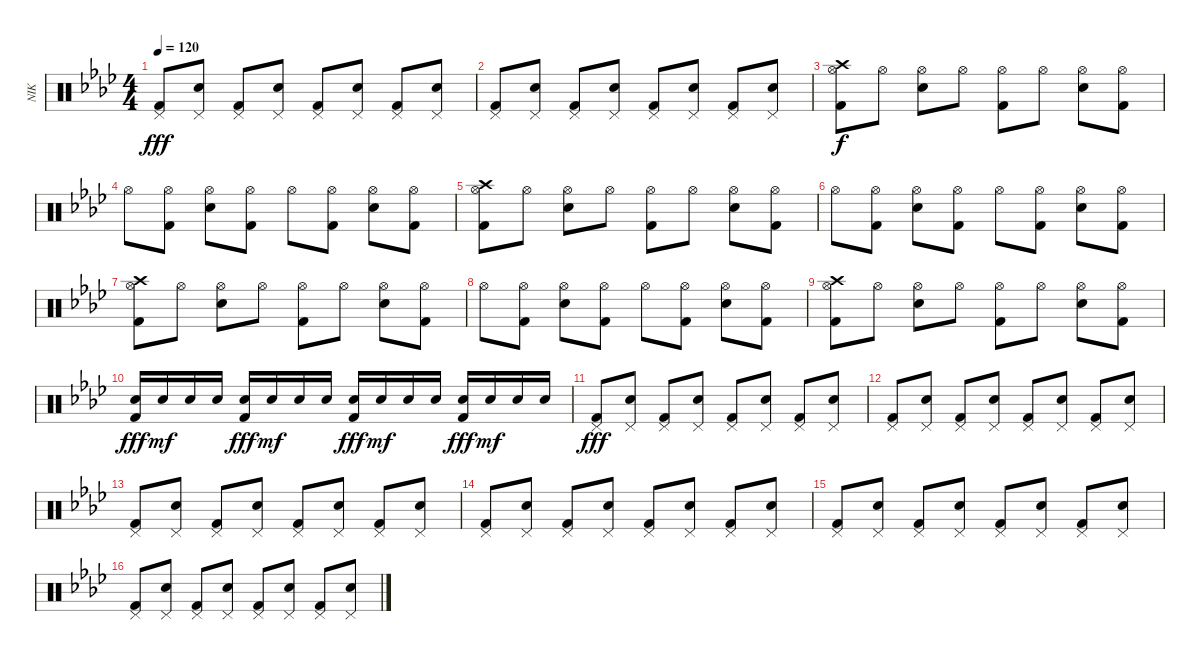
\track ("NIK" "NIK") {instrument percussion}
\staff {score}
\articulation defaults
\ts (4 4)
\tempo 120
\clef neutral
\ks ab
("Pedal Hi-Hat (hit)" "Kick (hit) 2").8{dy fff} ("Pedal Hi-Hat (hit)" "Electric Snare (hit)").8 ("Pedal Hi-Hat (hit)" "Kick (hit) 2").8 ("Pedal Hi-Hat (hit)" "Electric Snare (hit)").8 ("Pedal Hi-Hat (hit)" "Kick (hit) 2").8 ("Pedal Hi-Hat (hit)" "Electric Snare (hit)").8 ("Pedal Hi-Hat (hit)" "Kick (hit) 2").8 ("Pedal Hi-Hat (hit)" "Electric Snare (hit)").8 |
("Pedal Hi-Hat (hit)" "Kick (hit) 2").8 ("Pedal Hi-Hat (hit)" "Electric Snare (hit)").8 ("Pedal Hi-Hat (hit)" "Kick (hit) 2").8 ("Pedal Hi-Hat (hit)" "Electric Snare (hit)").8 ("Pedal Hi-Hat (hit)" "Kick (hit) 2").8 ("Pedal Hi-Hat (hit)" "Electric Snare (hit)").8 ("Pedal Hi-Hat (hit)" "Kick (hit) 2").8 ("Pedal Hi-Hat (hit)" "Electric Snare (hit)").8 |
("Crash high (hit)" "Hi-Hat (open)" "Kick (hit) 2").8{dy f} "Hi-Hat (open)".8 ("Hi-Hat (open)" "Electric Snare (hit)").8 "Hi-Hat (open)".8 ("Hi-Hat (open)" "Kick (hit) 2").8 "Hi-Hat (open)".8 ("Hi-Hat (open)" "Electric Snare (hit)").8 ("Hi-Hat (open)" "Kick (hit) 2").8 |
"Hi-Hat (open)".8 ("Hi-Hat (open)" "Kick (hit) 2").8 ("Hi-Hat (open)" "Electric Snare (hit)").8 ("Hi-Hat (open)" "Kick (hit) 2").8 "Hi-Hat (open)".8 ("Hi-Hat (open)" "Kick (hit) 2").8 ("Hi-Hat (open)" "Electric Snare (hit)").8 ("Hi-Hat (open)" "Kick (hit) 2").8 |
("Crash high (hit)" "Hi-Hat (open)" "Kick (hit) 2").8 "Hi-Hat (open)".8 ("Hi-Hat (open)" "Electric Snare (hit)").8 "Hi-Hat (open)".8 ("Hi-Hat (open)" "Kick (hit) 2").8 "Hi-Hat (open)".8 ("Hi-Hat (open)" "Electric Snare (hit)").8 ("Hi-Hat (open)" "Kick (hit) 2").8 |
"Hi-Hat (open)".8 ("Hi-Hat (open)" "Kick (hit) 2").8 ("Hi-Hat (open)" "Electric Snare (hit)").8 ("Hi-Hat (open)" "Kick (hit) 2").8 "Hi-Hat (open)".8 ("Hi-Hat (open)" "Kick (hit) 2").8 ("Hi-Hat (open)" "Electric Snare (hit)").8 ("Hi-Hat (open)" "Kick (hit) 2").8 |
("Crash high (hit)" "Hi-Hat (open)" "Kick (hit) 2").8 "Hi-Hat (open)".8 ("Hi-Hat (open)" "Electric Snare (hit)").8 "Hi-Hat (open)".8 ("Hi-Hat (open)" "Kick (hit) 2").8 "Hi-Hat (open)".8 ("Hi-Hat (open)" "Electric Snare (hit)").8 ("Hi-Hat (open)" "Kick (hit) 2").8 |
"Hi-Hat (open)".8 ("Hi-Hat (open)" "Kick (hit) 2").8 ("Hi-Hat (open)" "Electric Snare (hit)").8 ("Hi-Hat (open)" "Kick (hit) 2").8 "Hi-Hat (open)".8 ("Hi-Hat (open)" "Kick (hit) 2").8 ("Hi-Hat (open)" "Electric Snare (hit)").8 ("Hi-Hat (open)" "Kick (hit) 2").8 |
("Crash high (hit)" "Hi-Hat (open)" "Kick (hit) 2").8 "Hi-Hat (open)".8 ("Hi-Hat (open)" "Electric Snare (hit)").8 "Hi-Hat (open)".8 ("Hi-Hat (open)" "Kick (hit) 2").8 "Hi-Hat (open)".8 ("Hi-Hat (open)" "Electric Snare (hit)").8 ("Hi-Hat (open)" "Kick (hit) 2").8 |
("Electric Snare (hit)" "Kick (hit) 2").16{dy fff} "Electric Snare (hit)".16{dy mf} "Electric Snare (hit)".16 "Electric Snare (hit)".16 ("Electric Snare (hit)" "Kick (hit) 2").16{dy fff} "Electric Snare (hit)".16{dy mf} "Electric Snare (hit)".16 "Electric Snare (hit)".16 ("Electric Snare (hit)" "Kick (hit) 2").16{dy fff} "Electric Snare (hit)".16{dy mf} "Electric Snare (hit)".16 "Electric Snare (hit)".16 ("Electric Snare (hit)" "Kick (hit) 2").16{dy fff} "Electric Snare (hit)".16{dy mf} "Electric Snare (hit)".16 "Electric Snare (hit)".16 |
("Pedal Hi-Hat (hit)" "Kick (hit) 2").8{dy fff} ("Pedal Hi-Hat (hit)" "Electric Snare (hit)").8 ("Pedal Hi-Hat (hit)" "Kick (hit) 2").8 ("Pedal Hi-Hat (hit)" "Electric Snare (hit)").8 ("Pedal Hi-Hat (hit)" "Kick (hit) 2").8 ("Pedal Hi-Hat (hit)" "Electric Snare (hit)").8 ("Pedal Hi-Hat (hit)" "Kick (hit) 2").8 ("Pedal Hi-Hat (hit)" "Electric Snare (hit)").8 |
("Pedal Hi-Hat (hit)" "Kick (hit) 2").8 ("Pedal Hi-Hat (hit)" "Electric Snare (hit)").8 ("Pedal Hi-Hat (hit)" "Kick (hit) 2").8 ("Pedal Hi-Hat (hit)" "Electric Snare (hit)").8 ("Pedal Hi-Hat (hit)" "Kick (hit) 2").8 ("Pedal Hi-Hat (hit)" "Electric Snare (hit)").8 ("Pedal Hi-Hat (hit)" "Kick (hit) 2").8 ("Pedal Hi-Hat (hit)" "Electric Snare (hit)").8 |
("Pedal Hi-Hat (hit)" "Kick (hit) 2").8 ("Pedal Hi-Hat (hit)" "Electric Snare (hit)").8 ("Pedal Hi-Hat (hit)" "Kick (hit) 2").8 ("Pedal Hi-Hat (hit)" "Electric Snare (hit)").8 ("Pedal Hi-Hat (hit)" "Kick (hit) 2").8 ("Pedal Hi-Hat (hit)" "Electric Snare (hit)").8 ("Pedal Hi-Hat (hit)" "Kick (hit) 2").8 ("Pedal Hi-Hat (hit)" "Electric Snare (hit)").8 |
("Pedal Hi-Hat (hit)" "Kick (hit) 2").8 ("Pedal Hi-Hat (hit)" "Electric Snare (hit)").8 ("Pedal Hi-Hat (hit)" "Kick (hit) 2").8 ("Pedal Hi-Hat (hit)" "Electric Snare (hit)").8 ("Pedal Hi-Hat (hit)" "Kick (hit) 2").8 ("Pedal Hi-Hat (hit)" "Electric Snare (hit)").8 ("Pedal Hi-Hat (hit)" "Kick (hit) 2").8 ("Pedal Hi-Hat (hit)" "Electric Snare (hit)").8 |
("Pedal Hi-Hat (hit)" "Kick (hit) 2").8 ("Pedal Hi-Hat (hit)" "Electric Snare (hit)").8 ("Pedal Hi-Hat (hit)" "Kick (hit) 2").8 ("Pedal Hi-Hat (hit)" "Electric Snare (hit)").8 ("Pedal Hi-Hat (hit)" "Kick (hit) 2").8 ("Pedal Hi-Hat (hit)" "Electric Snare (hit)").8 ("Pedal Hi-Hat (hit)" "Kick (hit) 2").8 ("Pedal Hi-Hat (hit)" "Electric Snare (hit)").8 |
("Pedal Hi-Hat (hit)" "Kick (hit) 2").8 ("Pedal Hi-Hat (hit)" "Electric Snare (hit)").8 ("Pedal Hi-Hat (hit)" "Kick (hit) 2").8 ("Pedal Hi-Hat (hit)" "Electric Snare (hit)").8 ("Pedal Hi-Hat (hit)" "Kick (hit) 2").8 ("Pedal Hi-Hat (hit)" "Electric Snare (hit)").8 ("Pedal Hi-Hat (hit)" "Kick (hit) 2").8 ("Pedal Hi-Hat (hit)" "Electric Snare (hit)").8
